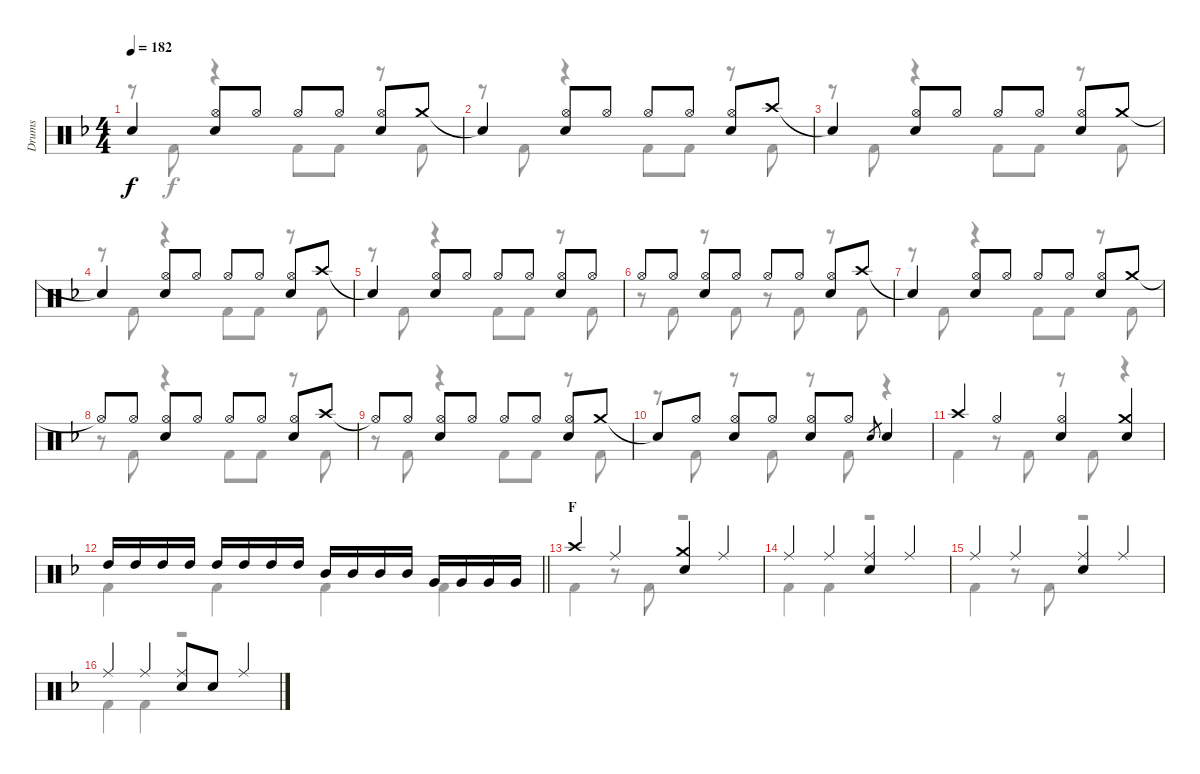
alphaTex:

\track ("Drums" "Drums") {instrument percussion}
\staff {score}
\articulation defaults
\voice
\ts (4 4)
\tempo 182
\clef neutral
\ks f "Snare (hit)"{t}.4{dy f}
("Hi-Hat (open)" "Snare (hit) 2").8 "Hi-Hat (open)".8 "Hi-Hat (open)".8 "Hi-Hat (open)".8 ("Hi-Hat (open)" "Snare (hit) 2").8 "Crash medium (hit)".8 |
"Snare (hit)"{t}.4 ("Hi-Hat (open)" "Snare (hit) 2").8 "Hi-Hat (open)".8 "Hi-Hat (open)".8 "Hi-Hat (open)".8 ("Hi-Hat (open)" "Snare (hit) 2").8 "Crash high (hit)".8 |
"Snare (hit)"{t}.4 ("Hi-Hat (open)" "Snare (hit) 2").8 "Hi-Hat (open)".8 "Hi-Hat (open)".8 "Hi-Hat (open)".8 ("Hi-Hat (open)" "Snare (hit) 2").8 "Crash medium (hit)".8 |
"Snare (hit)"{t}.4 ("Hi-Hat (open)" "Snare (hit) 2").8 "Hi-Hat (open)".8 "Hi-Hat (open)".8 "Hi-Hat (open)".8 ("Hi-Hat (open)" "Snare (hit) 2").8 "Crash high (hit)".8 |
"Snare (hit)"{t}.4 ("Hi-Hat (open)" "Snare (hit) 2").8 "Hi-Hat (open)".8 "Hi-Hat (open)".8 "Hi-Hat (open)".8 ("Hi-Hat (open)" "Snare (hit) 2").8 "Hi-Hat (open)".8 |
"Hi-Hat (open)".8 "Hi-Hat (open)".8 ("Hi-Hat (open)" "Snare (hit) 2").8 "Hi-Hat (open)".8 "Hi-Hat (open)".8 "Hi-Hat (open)".8 ("Hi-Hat (open)" "Snare (hit) 2").8 "Crash high (hit)".8 |
"Snare (hit)"{t}.4 ("Hi-Hat (open)" "Snare (hit) 2").8 "Hi-Hat (open)".8 "Hi-Hat (open)".8 "Hi-Hat (open)".8 ("Hi-Hat (open)" "Snare (hit) 2").8 "Crash medium (hit)".8 |
"Hi-Hat (open)"{t}.8 "Hi-Hat (open)".8 ("Hi-Hat (open)" "Snare (hit) 2").8 "Hi-Hat (open)".8 "Hi-Hat (open)".8 "Hi-Hat (open)".8 ("Hi-Hat (open)" "Snare (hit) 2").8 "Crash high (hit)".8 |
"Hi-Hat (open)"{t}.8 "Hi-Hat (open)".8 ("Hi-Hat (open)" "Snare (hit) 2").8 "Hi-Hat (open)".8 "Hi-Hat (open)".8 "Hi-Hat (open)".8 ("Hi-Hat (open)" "Snare (hit) 2").8 "Crash medium (hit)".8 |
"Snare (hit)"{t}.8 "Hi-Hat (open)".8 ("Hi-Hat (open)" "Snare (hit) 2").8 "Hi-Hat (open)".8 ("Hi-Hat (open)" "Snare (hit) 2").8 "Hi-Hat (open)".8 "Snare (hit) 2".8{gr} "Snare (hit) 2".4 |
"Crash high (hit)".4 "Hi-Hat (open)".4 ("Hi-Hat (open)" "Snare (hit) 2").4 ("Crash medium (hit)" "Snare (hit) 2").4 |
\barLineRight lightlight "High Tom (hit)".16 "High Tom (hit)".16 "High Tom (hit)".16 "High Tom (hit)".16 "High Tom (hit)".16 "High Tom (hit)".16 "High Tom (hit)".16 "High Tom (hit)".16 "Mid Tom (hit)".16 "Mid Tom (hit)".16 "Mid Tom (hit)".16 "Mid Tom (hit)".16 "Very Low Tom (hit)".16 "Very Low Tom (hit)".16 "Very Low Tom (hit)".16 "Very Low Tom (hit)".16
|
\section ("" "F")
"Crash high (hit)".4 "Ride (middle)".4 ("Crash medium (hit)" "Snare (hit) 2").4 "Ride (middle)".4 |
"Ride (middle)".4 "Ride (middle)".4 ("Ride (middle)" "Snare (hit) 2").4 "Ride (middle)".4 |
"Ride (middle)".4 "Ride (middle)".4 ("Ride (middle)" "Snare (hit) 2").4 "Ride (middle)".4 |
"Ride (middle)".4 "Ride (middle)".4 ("Ride (middle)" "Snare (hit) 2").8 "Snare (hit) 2".8 "Ride (middle)".4
\voice
\clef neutral
\ottava regular
\simile none
\ks f
r.8{dy f} "Kick (hit) 2".8 r.4 "Kick (hit) 2".8 "Kick (hit) 2".8 r.8 "Kick (hit) 2".8 |
r.8 "Kick (hit) 2".8 r.4 "Kick (hit) 2".8 "Kick (hit) 2".8 r.8 "Kick (hit) 2".8 |
r.8 "Kick (hit) 2".8 r.4 "Kick (hit) 2".8 "Kick (hit) 2".8 r.8 "Kick (hit) 2".8 |
r.8 "Kick (hit) 2".8 r.4 "Kick (hit) 2".8 "Kick (hit) 2".8 r.8 "Kick (hit) 2".8 |
r.8 "Kick (hit) 2".8 r.4 "Kick (hit) 2".8 "Kick (hit) 2".8 r.8 "Kick (hit) 2".8 |
r.8 "Kick (hit) 2".8 r.8 "Kick (hit) 2".8 r.8 "Kick (hit) 2".8 r.8 "Kick (hit) 2".8 |
r.8 "Kick (hit) 2".8 r.4 "Kick (hit) 2".8 "Kick (hit) 2".8 r.8 "Kick (hit) 2".8 |
r.8 "Kick (hit) 2".8 r.4 "Kick (hit) 2".8 "Kick (hit) 2".8 r.8 "Kick (hit) 2".8 |
r.8 "Kick (hit) 2".8 r.4 "Kick (hit) 2".8 "Kick (hit) 2".8 r.8 "Kick (hit) 2".8 |
r.8 "Kick (hit) 2".8 r.8 "Kick (hit) 2".8 r.8 "Kick (hit) 2".8 r.4 |
"Kick (hit) 2".4 r.8 "Kick (hit) 2".8 r.8 "Kick (hit) 2".8 r.4 |
\barLineRight lightlight "Kick (hit) 2".4 "Kick (hit) 2".4 "Kick (hit) 2".4 "Kick (hit) 2".4
|
"Kick (hit) 2".4 r.8 "Kick (hit) 2".8 r.2 |
"Kick (hit) 2".4 "Kick (hit) 2".4 r.2 |
"Kick (hit) 2".4 r.8 "Kick (hit) 2".8 r.2 |
"Kick (hit) 2".4 "Kick (hit) 2".4 r.2
